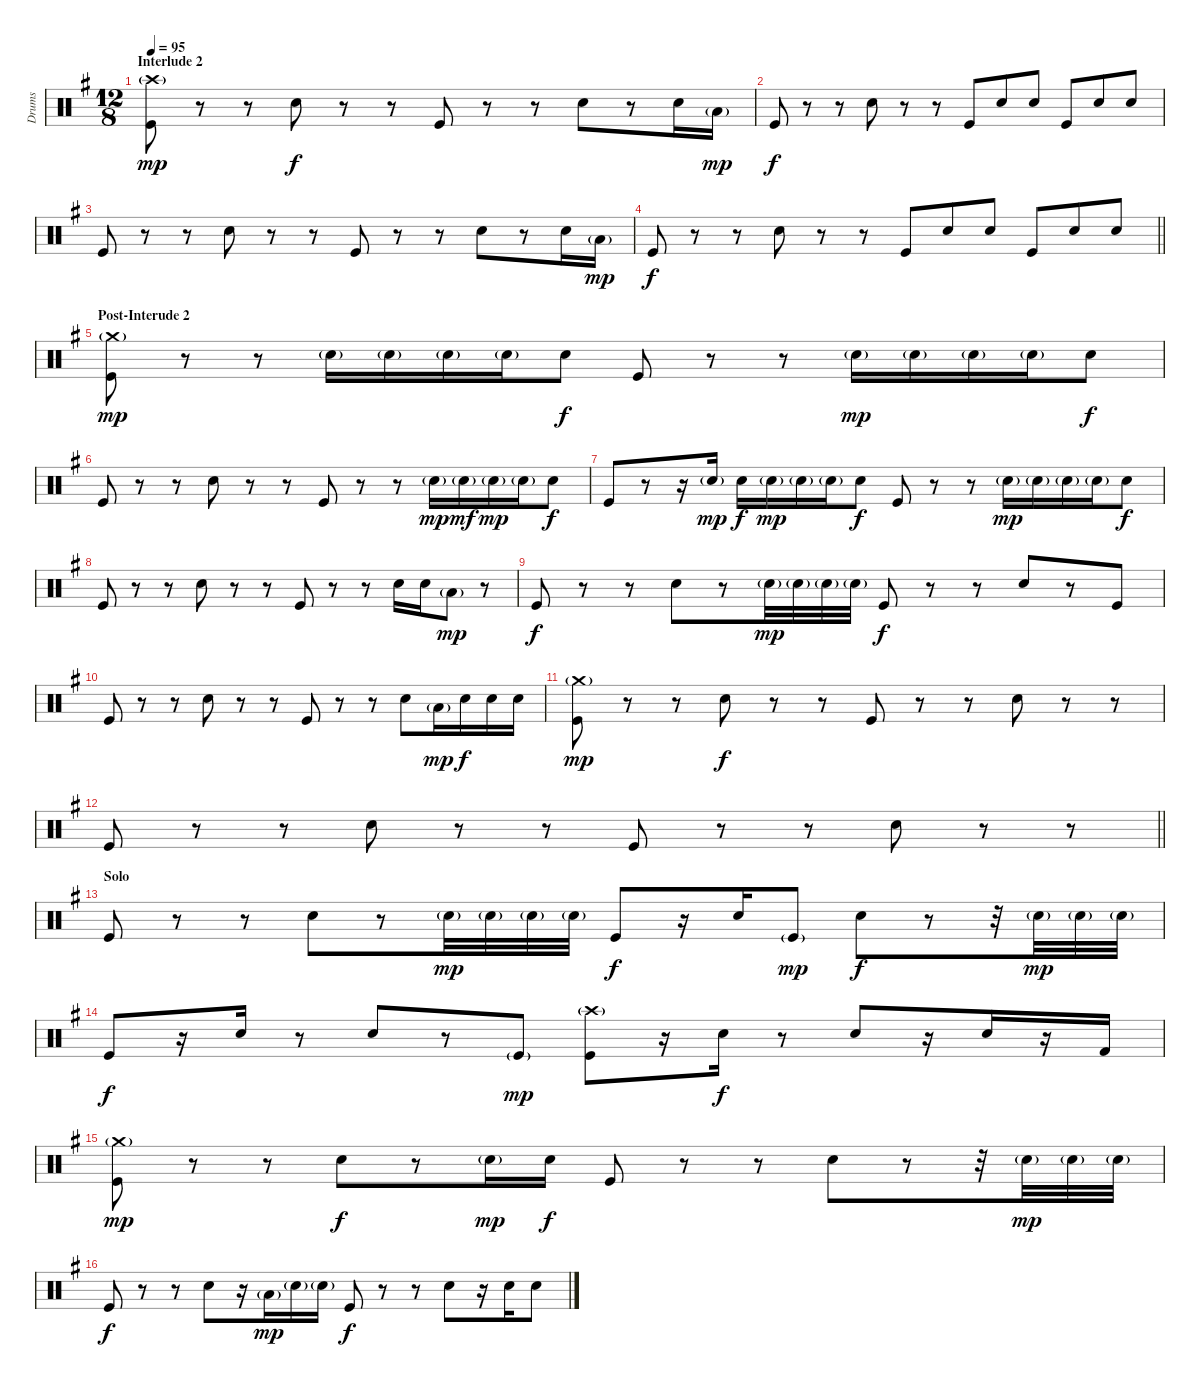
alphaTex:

\track ("Drums" "Drums") {instrument percussion}
\staff {score}
\articulation defaults
\ts (12 8)
\section ("" "Interlude 2")
\tempo 95
\clef neutral
\ks eminor
("Crash high (hit)"{g} "Kick (hit)").8{dy mp} r.8 r.8 "Snare (hit) 2".8{dy f} r.8 r.8 "Kick (hit)".8 r.8 r.8 "Snare (hit) 2".8 r.8 "Snare (hit) 2".16 "Low Tom (hit)"{g}.16{dy mp} |
"Kick (hit)".8{dy f} r.8 r.8 "Snare (hit) 2".8 r.8 r.8 "Kick (hit)".8 "Snare (hit) 2".8 "Snare (hit) 2".8 "Kick (hit)".8 "Snare (hit) 2".8 "Snare (hit) 2".8 |
"Kick (hit)".8 r.8 r.8 "Snare (hit) 2".8 r.8 r.8 "Kick (hit)".8 r.8 r.8 "Snare (hit) 2".8 r.8 "Snare (hit) 2".16 "Low Tom (hit)"{g}.16{dy mp} |
\barLineRight lightlight "Kick (hit)".8{dy f}
r.8 r.8 "Snare (hit) 2".8 r.8 r.8 "Kick (hit)".8 "Snare (hit) 2".8 "Snare (hit) 2".8 "Kick (hit)".8 "Snare (hit) 2".8 "Snare (hit) 2".8 |
\section ("" "Post-Interude 2")
("Crash medium (hit)"{g} "Kick (hit)").8{dy mp} r.8 r.8 "Snare (hit) 2"{g}.16 "Snare (hit) 2"{g}.16 "Snare (hit) 2"{g}.16 "Snare (hit) 2"{g}.16 "Snare (hit) 2".8{dy f} "Kick (hit)".8 r.8 r.8 "Snare (hit) 2"{g}.16{dy mp} "Snare (hit) 2"{g}.16 "Snare (hit) 2"{g}.16 "Snare (hit) 2"{g}.16 "Snare (hit) 2".8{dy f} |
"Kick (hit)".8 r.8 r.8 "Snare (hit) 2".8 r.8 r.8 "Kick (hit)".8 r.8 r.8 "Snare (hit) 2"{g}.16{dy mp} "Snare (hit) 2"{g}.16{dy mf} "Snare (hit) 2"{g}.16{dy mp} "Snare (hit) 2"{g}.16 "Snare (hit) 2".8{dy f} |
"Kick (hit)".8 r.8 r.16 "Snare (hit) 2"{g}.16{dy mp} "Snare (hit) 2".16{dy f} "Snare (hit) 2"{g}.16{dy mp} "Snare (hit) 2"{g}.16 "Snare (hit) 2"{g}.16 "Snare (hit) 2".8{dy f} "Kick (hit)".8 r.8 r.8 "Snare (hit) 2"{g}.16{dy mp} "Snare (hit) 2"{g}.16 "Snare (hit) 2"{g}.16 "Snare (hit) 2"{g}.16 "Snare (hit) 2".8{dy f} |
"Kick (hit)".8 r.8 r.8 "Snare (hit) 2".8 r.8 r.8 "Kick (hit)".8 r.8 r.8 "Snare (hit) 2".16 "Snare (hit) 2".16 "Low Tom (hit)"{g}.8{dy mp} r.8 |
"Kick (hit)".8{dy f} r.8 r.8 "Snare (hit) 2".8 r.8 "Snare (hit) 2"{g}.32{dy mp} "Snare (hit) 2"{g}.32 "Snare (hit) 2"{g}.32 "Snare (hit) 2"{g}.32 "Kick (hit)".8{dy f} r.8 r.8 "Snare (hit) 2".8 r.8 "Kick (hit)".8 |
"Kick (hit)".8 r.8 r.8 "Snare (hit) 2".8 r.8 r.8 "Kick (hit)".8 r.8 r.8 "Snare (hit) 2".8 "Low Tom (hit)"{g}.16{dy mp} "Snare (hit) 2".16{dy f} "Snare (hit) 2".16 "Snare (hit) 2".16 |
("Crash medium (hit)"{g} "Kick (hit)").8{dy mp} r.8 r.8 "Snare (hit) 2".8{dy f} r.8 r.8 "Kick (hit)".8 r.8 r.8 "Snare (hit) 2".8 r.8 r.8 |
\barLineRight lightlight "Kick (hit)".8
r.8 r.8 "Snare (hit) 2".8 r.8 r.8 "Kick (hit)".8 r.8 r.8 "Snare (hit) 2".8 r.8 r.8 |
\section ("" "Solo")
"Kick (hit)".8 r.8 r.8 "Snare (hit) 2".8 r.8 "Snare (hit) 2"{g}.32{dy mp} "Snare (hit) 2"{g}.32 "Snare (hit) 2"{g}.32 "Snare (hit) 2"{g}.32 "Kick (hit)".8{dy f} r.16 "Snare (hit) 2".16 "Kick (hit)"{g}.8{dy mp} "Snare (hit) 2".8{dy f} r.8 r.32 "Snare (hit) 2"{g}.32{dy mp} "Snare (hit) 2"{g}.32 "Snare (hit) 2"{g}.32 |
"Kick (hit)".8{dy f} r.16 "Snare (hit) 2".16 r.8 "Snare (hit) 2".8 r.8 "Kick (hit)"{g}.8{dy mp} ("Crash high (hit)"{g} "Kick (hit)").8 r.16 "Snare (hit) 2".16{dy f} r.8 "Snare (hit) 2".8 r.16 "Snare (hit) 2".16 r.16 "Kick (hit) 2".16 |
("Crash medium (hit)"{g} "Kick (hit)").8{dy mp} r.8 r.8 "Snare (hit) 2".8{dy f} r.8 "Snare (hit) 2"{g}.16{dy mp} "Snare (hit) 2".16{dy f} "Kick (hit)".8 r.8 r.8 "Snare (hit) 2".8 r.8 r.32 "Snare (hit) 2"{g}.32{dy mp} "Snare (hit) 2"{g}.32 "Snare (hit) 2"{g}.32 |
"Kick (hit)".8{dy f} r.8 r.8 "Snare (hit) 2".8 r.16 "Low Tom (hit)"{g}.16{dy mp} "Snare (hit) 2"{g}.16 "Snare (hit) 2"{g}.16 "Kick (hit)".8{dy f} r.8 r.8 "Snare (hit) 2".8 r.16 "Snare (hit) 2".16 "Snare (hit) 2".8
